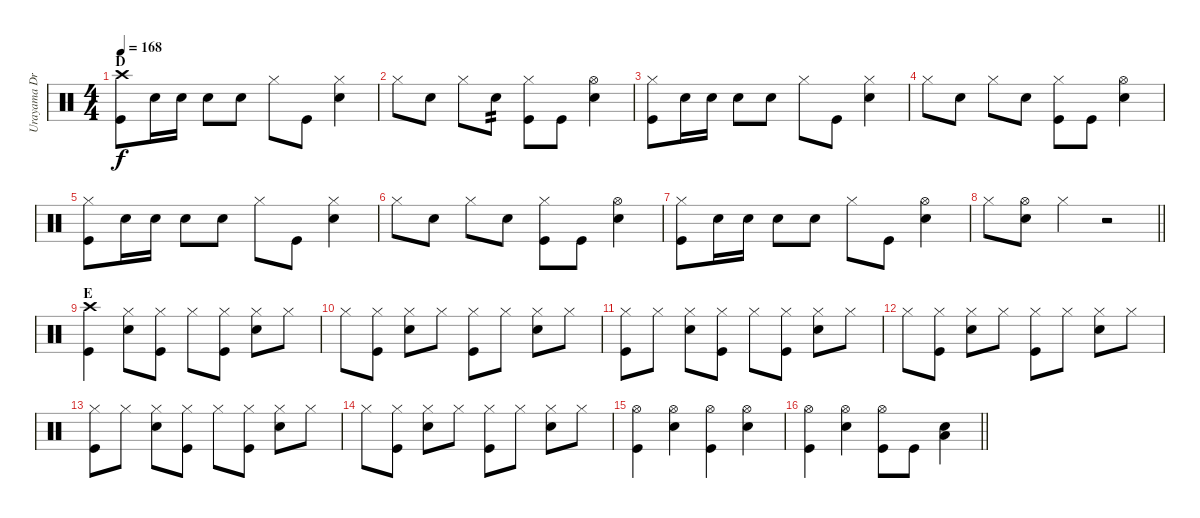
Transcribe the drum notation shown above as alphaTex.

\track ("Urayama Drums" "Urayama Dr") {instrument percussion}
\staff {score}
\articulation defaults
\ts (4 4)
\section ("" "D")
\tempo 168
\clef neutral
\ks c
("Crash high (hit)" "Kick (hit)").8{dy f} "Snare (hit) 2".16 "Snare (hit) 2".16 "Snare (hit) 2".8 "Snare (hit) 2".8 "Hi-Hat (closed)".8 "Kick (hit)".8 ("Hi-Hat (closed)" "Snare (hit) 2").4 |
"Hi-Hat (closed)".8 "Snare (hit) 2".8 "Hi-Hat (closed)".8 "Snare (hit) 2".8{tp 2} ("Hi-Hat (closed)" "Kick (hit)").8 "Kick (hit)".8 ("Hi-Hat (open)" "Snare (hit) 2").4 |
("Hi-Hat (closed)" "Kick (hit)").8 "Snare (hit) 2".16 "Snare (hit) 2".16 "Snare (hit) 2".8 "Snare (hit) 2".8 "Hi-Hat (closed)".8 "Kick (hit)".8 ("Hi-Hat (closed)" "Snare (hit) 2").4 |
"Hi-Hat (closed)".8 "Snare (hit) 2".8 "Hi-Hat (closed)".8 "Snare (hit) 2".8 ("Hi-Hat (closed)" "Kick (hit)").8 "Kick (hit)".8 ("Hi-Hat (open)" "Snare (hit) 2").4 |
("Hi-Hat (closed)" "Kick (hit)").8 "Snare (hit) 2".16 "Snare (hit) 2".16 "Snare (hit) 2".8 "Snare (hit) 2".8 "Hi-Hat (closed)".8 "Kick (hit)".8 ("Hi-Hat (closed)" "Snare (hit) 2").4 |
"Hi-Hat (closed)".8 "Snare (hit) 2".8 "Hi-Hat (closed)".8 "Snare (hit) 2".8 ("Hi-Hat (closed)" "Kick (hit)").8 "Kick (hit)".8 ("Hi-Hat (open)" "Snare (hit) 2").4 |
("Hi-Hat (closed)" "Kick (hit)").8 "Snare (hit) 2".16 "Snare (hit) 2".16 "Snare (hit) 2".8 "Snare (hit) 2".8 "Hi-Hat (closed)".8 "Kick (hit)".8 ("Hi-Hat (open)" "Electric Snare (hit)").4 |
\barLineRight lightlight "Hi-Hat (closed)".8
("Hi-Hat (open)" "Electric Snare (hit)").8 "Hi-Hat (closed)".4 r.2 |
\section ("" "E")
("Crash high (hit)" "Kick (hit)").4 ("Hi-Hat (closed)" "Electric Snare (hit)").8 ("Hi-Hat (closed)" "Kick (hit)").8 "Hi-Hat (closed)".8 ("Hi-Hat (closed)" "Kick (hit)").8 ("Hi-Hat (closed)" "Electric Snare (hit)").8 "Hi-Hat (closed)".8 |
"Hi-Hat (closed)".8 ("Hi-Hat (closed)" "Kick (hit)").8 ("Hi-Hat (closed)" "Electric Snare (hit)").8 "Hi-Hat (closed)".8 ("Hi-Hat (closed)" "Kick (hit)").8 "Hi-Hat (closed)".8 ("Hi-Hat (closed)" "Electric Snare (hit)").8 "Hi-Hat (closed)".8 |
("Hi-Hat (closed)" "Kick (hit)").8 "Hi-Hat (closed)".8 ("Hi-Hat (closed)" "Electric Snare (hit)").8 ("Hi-Hat (closed)" "Kick (hit)").8 "Hi-Hat (closed)".8 ("Hi-Hat (closed)" "Kick (hit)").8 ("Hi-Hat (closed)" "Electric Snare (hit)").8 "Hi-Hat (closed)".8 |
"Hi-Hat (closed)".8 ("Hi-Hat (closed)" "Kick (hit)").8 ("Hi-Hat (closed)" "Electric Snare (hit)").8 "Hi-Hat (closed)".8 ("Hi-Hat (closed)" "Kick (hit)").8 "Hi-Hat (closed)".8 ("Hi-Hat (closed)" "Electric Snare (hit)").8 "Hi-Hat (closed)".8 |
("Hi-Hat (closed)" "Kick (hit)").8 "Hi-Hat (closed)".8 ("Hi-Hat (closed)" "Electric Snare (hit)").8 ("Hi-Hat (closed)" "Kick (hit)").8 "Hi-Hat (closed)".8 ("Hi-Hat (closed)" "Kick (hit)").8 ("Hi-Hat (closed)" "Electric Snare (hit)").8 "Hi-Hat (closed)".8 |
"Hi-Hat (closed)".8 ("Hi-Hat (closed)" "Kick (hit)").8 ("Hi-Hat (closed)" "Electric Snare (hit)").8 "Hi-Hat (closed)".8 ("Hi-Hat (closed)" "Kick (hit)").8 "Hi-Hat (closed)".8 ("Hi-Hat (closed)" "Electric Snare (hit)").8 "Hi-Hat (closed)".8 |
("Hi-Hat (open)" "Kick (hit)").4 ("Hi-Hat (open)" "Electric Snare (hit)").4 ("Hi-Hat (open)" "Kick (hit)").4 ("Hi-Hat (open)" "Electric Snare (hit)").4 |
\barLineRight lightlight
("Hi-Hat (open)" "Kick (hit)").4 ("Hi-Hat (open)" "Electric Snare (hit)").4 ("Hi-Hat (open)" "Kick (hit)").8 "Kick (hit)".8 ("Electric Snare (hit)" "Low Tom (hit)").4
